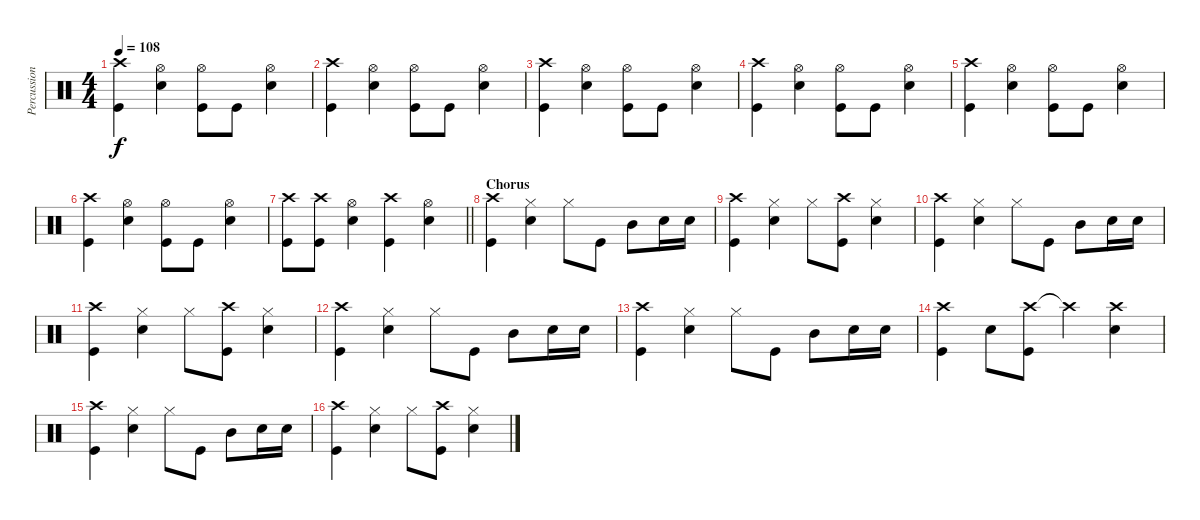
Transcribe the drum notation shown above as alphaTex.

\track ("Percussion" "Percussion") {instrument percussion}
\staff {score}
\articulation defaults
\ts (4 4)
\tempo 108
\clef neutral
\ks c
("Crash high (hit)" "Kick (hit)").4{dy f} ("Snare (hit) 2" "Hi-Hat (open)").4 ("Hi-Hat (open)" "Kick (hit)").8 "Kick (hit)".8 ("Hi-Hat (open)" "Snare (hit) 2").4 |
("Crash high (hit)" "Kick (hit)").4 ("Snare (hit) 2" "Hi-Hat (open)").4 ("Hi-Hat (open)" "Kick (hit)").8 "Kick (hit)".8 ("Hi-Hat (open)" "Snare (hit) 2").4 |
("Crash high (hit)" "Kick (hit)").4 ("Snare (hit) 2" "Hi-Hat (open)").4 ("Hi-Hat (open)" "Kick (hit)").8 "Kick (hit)".8 ("Hi-Hat (open)" "Snare (hit) 2").4 |
("Crash high (hit)" "Kick (hit)").4 ("Snare (hit) 2" "Hi-Hat (open)").4 ("Hi-Hat (open)" "Kick (hit)").8 "Kick (hit)".8 ("Hi-Hat (open)" "Snare (hit) 2").4 |
("Crash high (hit)" "Kick (hit)").4 ("Snare (hit) 2" "Hi-Hat (open)").4 ("Hi-Hat (open)" "Kick (hit)").8 "Kick (hit)".8 ("Hi-Hat (open)" "Snare (hit) 2").4 |
("Crash high (hit)" "Kick (hit)").4 ("Snare (hit) 2" "Hi-Hat (open)").4 ("Hi-Hat (open)" "Kick (hit)").8 "Kick (hit)".8 ("Hi-Hat (open)" "Snare (hit) 2").4 |
\barLineRight lightlight
("Crash high (hit)" "Kick (hit)").8 ("Crash high (hit)" "Kick (hit)").8 ("Hi-Hat (open)" "Snare (hit) 2").4 ("Crash high (hit)" "Kick (hit)").4 ("Hi-Hat (open)" "Snare (hit) 2").4 |
\section ("" "Chorus")
("Kick (hit)" "Crash high (hit)").4 ("Snare (hit) 2" "Hi-Hat (closed)").4 "Hi-Hat (closed)".8 "Kick (hit)".8 "Mid Tom (hit)".8 "Snare (hit) 2".16 "Snare (hit) 2".16 |
("Kick (hit)" "Crash high (hit)").4 ("Snare (hit) 2" "Hi-Hat (closed)").4 "Hi-Hat (closed)".8 ("Crash high (hit)" "Kick (hit)").8 ("Snare (hit) 2" "Hi-Hat (closed)").4 |
("Kick (hit)" "Crash high (hit)").4 ("Snare (hit) 2" "Hi-Hat (closed)").4 "Hi-Hat (closed)".8 "Kick (hit)".8 "Mid Tom (hit)".8 "Snare (hit) 2".16 "Snare (hit) 2".16 |
("Kick (hit)" "Crash high (hit)").4 ("Snare (hit) 2" "Hi-Hat (closed)").4 "Hi-Hat (closed)".8 ("Crash high (hit)" "Kick (hit)").8 ("Snare (hit) 2" "Hi-Hat (closed)").4 |
("Kick (hit)" "Crash high (hit)").4 ("Snare (hit) 2" "Hi-Hat (closed)").4 "Hi-Hat (closed)".8 "Kick (hit)".8 "Mid Tom (hit)".8 "Snare (hit) 2".16 "Snare (hit) 2".16 |
("Kick (hit)" "Crash high (hit)").4 ("Snare (hit) 2" "Hi-Hat (closed)").4 "Hi-Hat (closed)".8 "Kick (hit)".8 "Mid Tom (hit)".8 "Snare (hit) 2".16 "Snare (hit) 2".16 |
("Crash high (hit)" "Kick (hit)").4 "Snare (hit) 2".8 ("Crash high (hit)" "Kick (hit)").8 "Crash high (hit)"{t}.4 ("Crash high (hit)" "Snare (hit) 2").4 |
("Kick (hit)" "Crash high (hit)").4 ("Snare (hit) 2" "Hi-Hat (closed)").4 "Hi-Hat (closed)".8 "Kick (hit)".8 "Mid Tom (hit)".8 "Snare (hit) 2".16 "Snare (hit) 2".16 |
("Kick (hit)" "Crash high (hit)").4 ("Snare (hit) 2" "Hi-Hat (closed)").4 "Hi-Hat (closed)".8 ("Crash high (hit)" "Kick (hit)").8 ("Snare (hit) 2" "Hi-Hat (closed)").4
